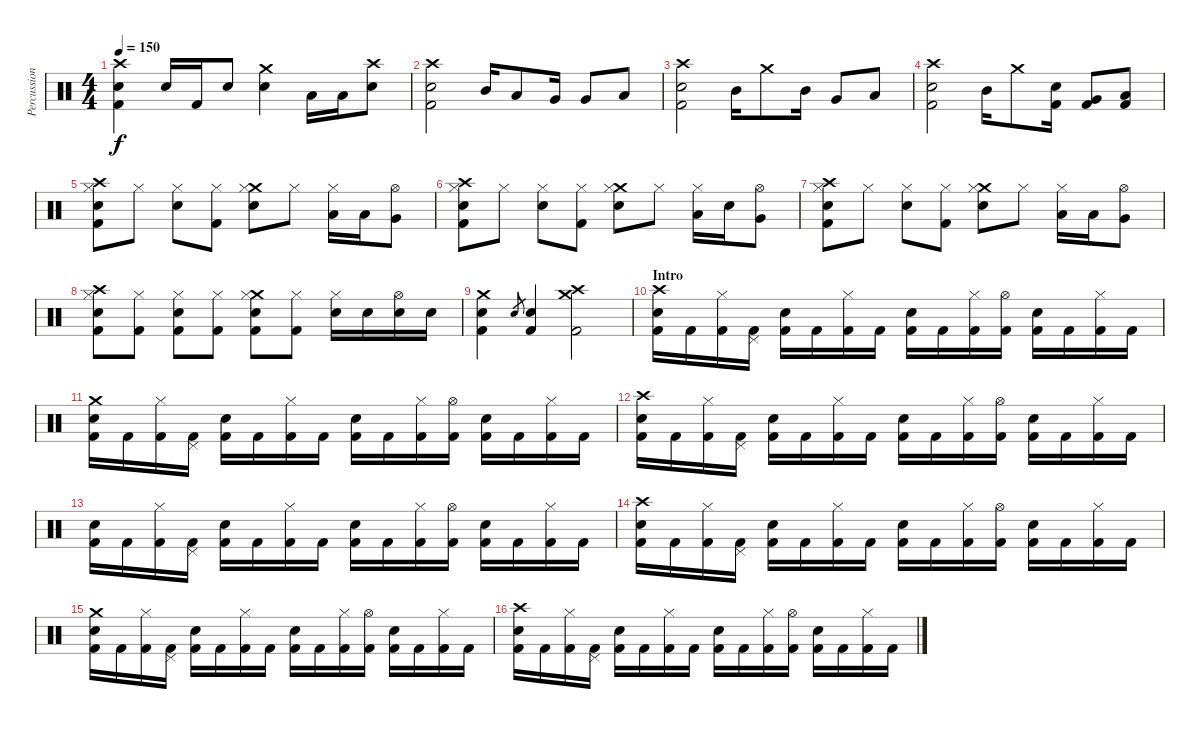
\track ("Percussioni" "Percussion") {instrument percussion}
\staff {score}
\articulation defaults
\ts (4 4)
\tempo 150
\clef neutral
\ks c
("Crash high (hit)" "Snare (hit) 2" "Kick (hit) 2").4{dy f} "Snare (hit) 2".16 "Kick (hit) 2".16 "Snare (hit) 2".8 ("Crash medium (hit)" "Snare (hit) 2").4 "Low Tom (hit)".16 "Low Tom (hit)".16 ("Crash high (hit)" "Snare (hit) 2").8 |
("Crash high (hit)" "Snare (hit) 2" "Kick (hit) 2").2 "Mid Tom (hit)".16 "Low Tom (hit)".8 "Very Low Tom (hit)".16 "Very Low Tom (hit)".8 "Low Tom (hit)".8 |
("Crash high (hit)" "Snare (hit) 2" "Kick (hit) 2").2 "Mid Tom (hit)".16 "Crash medium (hit)".8 "Mid Tom (hit)".16 "Very Low Tom (hit)".8 "Low Tom (hit)".8 |
("Crash high (hit)" "Snare (hit) 2" "Kick (hit) 2").2 "Mid Tom (hit)".16 "Crash medium (hit)".8 ("Snare (hit) 2" "Kick (hit) 2").16 ("Very Low Tom (hit)" "Kick (hit) 2").8 ("Low Tom (hit)" "Kick (hit) 2").8 |
("Crash high (hit)" "Snare (hit) 2" "Kick (hit) 2" "Hi-Hat (closed)").8 "Hi-Hat (closed)".8 ("Snare (hit) 2" "Hi-Hat (closed)").8 ("Kick (hit) 2" "Hi-Hat (closed)").8 ("Crash medium (hit)" "Snare (hit) 2" "Hi-Hat (closed)").8 "Hi-Hat (closed)".8 ("Low Tom (hit)" "Hi-Hat (closed)").16 "Low Tom (hit)".16 ("Very Low Tom (hit)" "Hi-Hat (open)").8 |
("Crash high (hit)" "Snare (hit) 2" "Kick (hit) 2" "Hi-Hat (closed)").8 "Hi-Hat (closed)".8 ("Snare (hit) 2" "Hi-Hat (closed)").8 ("Kick (hit) 2" "Hi-Hat (closed)").8 ("Crash medium (hit)" "Snare (hit) 2" "Hi-Hat (closed)").8 "Hi-Hat (closed)".8 ("Low Tom (hit)" "Hi-Hat (closed)").16 "Snare (hit) 2".16 ("Very Low Tom (hit)" "Hi-Hat (open)").8 |
("Crash high (hit)" "Snare (hit) 2" "Kick (hit) 2" "Hi-Hat (closed)").8 "Hi-Hat (closed)".8 ("Snare (hit) 2" "Hi-Hat (closed)").8 ("Kick (hit) 2" "Hi-Hat (closed)").8 ("Crash medium (hit)" "Snare (hit) 2" "Hi-Hat (closed)").8 "Hi-Hat (closed)".8 ("Low Tom (hit)" "Hi-Hat (closed)").16 "Low Tom (hit)".16 ("Very Low Tom (hit)" "Hi-Hat (open)").8 |
("Crash high (hit)" "Snare (hit) 2" "Kick (hit) 2" "Hi-Hat (closed)").8 ("Kick (hit) 2" "Hi-Hat (closed)").8 ("Snare (hit) 2" "Kick (hit) 2" "Hi-Hat (closed)").8 ("Kick (hit) 2" "Hi-Hat (closed)").8 ("Crash medium (hit)" "Snare (hit) 2" "Kick (hit) 2" "Hi-Hat (closed)").8 ("Kick (hit) 2" "Hi-Hat (closed)").8 ("Snare (hit) 2" "Hi-Hat (closed)").16 "Snare (hit) 2".16 ("Snare (hit) 2" "Hi-Hat (open)").16 "Snare (hit) 2".16 |
("Crash medium (hit)" "Snare (hit) 2" "Kick (hit) 2").4 "Snare (hit) 2".8{gr} ("Snare (hit) 2" "Kick (hit) 2").4 ("Crash medium (hit)" "Crash high (hit)" "Kick (hit) 2").2 |
\section ("" "Intro")
("Crash high (hit)" "Snare (hit) 2" "Kick (hit) 2").16 "Kick (hit) 2".16 ("Kick (hit) 2" "Hi-Hat (closed)").16 ("Kick (hit) 2" "Pedal Hi-Hat (hit)").16 ("Snare (hit) 2" "Kick (hit) 2").16 "Kick (hit) 2".16 ("Kick (hit) 2" "Hi-Hat (closed)").16 "Kick (hit) 2".16 ("Snare (hit) 2" "Kick (hit) 2").16 "Kick (hit) 2".16 ("Kick (hit) 2" "Hi-Hat (closed)").16 ("Kick (hit) 2" "Hi-Hat (open)").16 ("Snare (hit) 2" "Kick (hit) 2").16 "Kick (hit) 2".16 ("Kick (hit) 2" "Hi-Hat (closed)").16 "Kick (hit) 2".16 |
("Crash medium (hit)" "Snare (hit) 2" "Kick (hit) 2").16 "Kick (hit) 2".16 ("Kick (hit) 2" "Hi-Hat (closed)").16 ("Kick (hit) 2" "Pedal Hi-Hat (hit)").16 ("Snare (hit) 2" "Kick (hit) 2").16 "Kick (hit) 2".16 ("Kick (hit) 2" "Hi-Hat (closed)").16 "Kick (hit) 2".16 ("Snare (hit) 2" "Kick (hit) 2").16 "Kick (hit) 2".16 ("Kick (hit) 2" "Hi-Hat (closed)").16 ("Kick (hit) 2" "Hi-Hat (open)").16 ("Snare (hit) 2" "Kick (hit) 2").16 "Kick (hit) 2".16 ("Kick (hit) 2" "Hi-Hat (closed)").16 "Kick (hit) 2".16 |
("Crash high (hit)" "Snare (hit) 2" "Kick (hit) 2").16 "Kick (hit) 2".16 ("Kick (hit) 2" "Hi-Hat (closed)").16 ("Kick (hit) 2" "Pedal Hi-Hat (hit)").16 ("Snare (hit) 2" "Kick (hit) 2").16 "Kick (hit) 2".16 ("Kick (hit) 2" "Hi-Hat (closed)").16 "Kick (hit) 2".16 ("Snare (hit) 2" "Kick (hit) 2").16 "Kick (hit) 2".16 ("Kick (hit) 2" "Hi-Hat (closed)").16 ("Kick (hit) 2" "Hi-Hat (open)").16 ("Snare (hit) 2" "Kick (hit) 2").16 "Kick (hit) 2".16 ("Kick (hit) 2" "Hi-Hat (closed)").16 "Kick (hit) 2".16 |
("Snare (hit) 2" "Kick (hit) 2").16 "Kick (hit) 2".16 ("Kick (hit) 2" "Hi-Hat (closed)").16 ("Kick (hit) 2" "Pedal Hi-Hat (hit)").16 ("Snare (hit) 2" "Kick (hit) 2").16 "Kick (hit) 2".16 ("Kick (hit) 2" "Hi-Hat (closed)").16 "Kick (hit) 2".16 ("Snare (hit) 2" "Kick (hit) 2").16 "Kick (hit) 2".16 ("Kick (hit) 2" "Hi-Hat (closed)").16 ("Kick (hit) 2" "Hi-Hat (open)").16 ("Snare (hit) 2" "Kick (hit) 2").16 "Kick (hit) 2".16 ("Kick (hit) 2" "Hi-Hat (closed)").16 "Kick (hit) 2".16 |
("Crash high (hit)" "Snare (hit) 2" "Kick (hit) 2").16 "Kick (hit) 2".16 ("Kick (hit) 2" "Hi-Hat (closed)").16 ("Kick (hit) 2" "Pedal Hi-Hat (hit)").16 ("Snare (hit) 2" "Kick (hit) 2").16 "Kick (hit) 2".16 ("Kick (hit) 2" "Hi-Hat (closed)").16 "Kick (hit) 2".16 ("Snare (hit) 2" "Kick (hit) 2").16 "Kick (hit) 2".16 ("Kick (hit) 2" "Hi-Hat (closed)").16 ("Kick (hit) 2" "Hi-Hat (open)").16 ("Snare (hit) 2" "Kick (hit) 2").16 "Kick (hit) 2".16 ("Kick (hit) 2" "Hi-Hat (closed)").16 "Kick (hit) 2".16 |
("Crash medium (hit)" "Snare (hit) 2" "Kick (hit) 2").16 "Kick (hit) 2".16 ("Kick (hit) 2" "Hi-Hat (closed)").16 ("Kick (hit) 2" "Pedal Hi-Hat (hit)").16 ("Snare (hit) 2" "Kick (hit) 2").16 "Kick (hit) 2".16 ("Kick (hit) 2" "Hi-Hat (closed)").16 "Kick (hit) 2".16 ("Snare (hit) 2" "Kick (hit) 2").16 "Kick (hit) 2".16 ("Kick (hit) 2" "Hi-Hat (closed)").16 ("Kick (hit) 2" "Hi-Hat (open)").16 ("Snare (hit) 2" "Kick (hit) 2").16 "Kick (hit) 2".16 ("Kick (hit) 2" "Hi-Hat (closed)").16 "Kick (hit) 2".16 |
("Crash high (hit)" "Snare (hit) 2" "Kick (hit) 2").16 "Kick (hit) 2".16 ("Kick (hit) 2" "Hi-Hat (closed)").16 ("Kick (hit) 2" "Pedal Hi-Hat (hit)").16 ("Snare (hit) 2" "Kick (hit) 2").16 "Kick (hit) 2".16 ("Kick (hit) 2" "Hi-Hat (closed)").16 "Kick (hit) 2".16 ("Snare (hit) 2" "Kick (hit) 2").16 "Kick (hit) 2".16 ("Kick (hit) 2" "Hi-Hat (closed)").16 ("Kick (hit) 2" "Hi-Hat (open)").16 ("Snare (hit) 2" "Kick (hit) 2").16 "Kick (hit) 2".16 ("Kick (hit) 2" "Hi-Hat (closed)").16 "Kick (hit) 2".16
